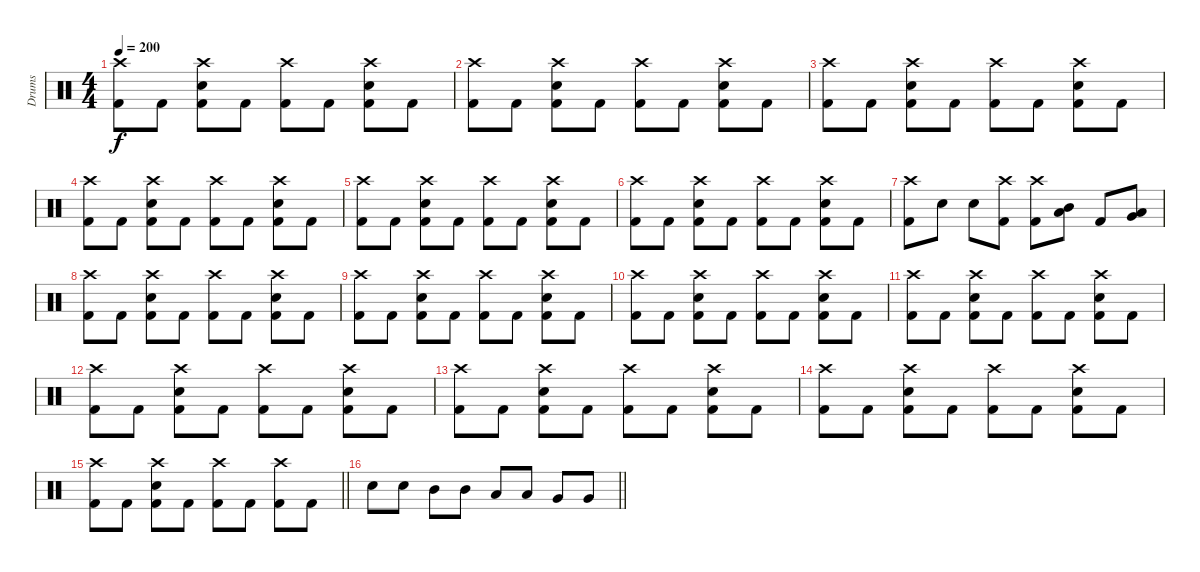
\track ("Drums" "Drums") {instrument percussion}
\staff {score}
\articulation defaults
\ts (4 4)
\tempo 200
\clef neutral
\ks c
("Crash high (hit)" "Kick (hit) 2").8{dy f} "Kick (hit) 2".8 ("Crash high (hit)" "Snare (hit) 2" "Kick (hit) 2").8 "Kick (hit) 2".8 ("Crash high (hit)" "Kick (hit) 2").8 "Kick (hit) 2".8 ("Crash high (hit)" "Snare (hit) 2" "Kick (hit) 2").8 "Kick (hit) 2".8 |
("Crash high (hit)" "Kick (hit) 2").8 "Kick (hit) 2".8 ("Crash high (hit)" "Snare (hit) 2" "Kick (hit) 2").8 "Kick (hit) 2".8 ("Crash high (hit)" "Kick (hit) 2").8 "Kick (hit) 2".8 ("Crash high (hit)" "Snare (hit) 2" "Kick (hit) 2").8 "Kick (hit) 2".8 |
("Crash high (hit)" "Kick (hit) 2").8 "Kick (hit) 2".8 ("Crash high (hit)" "Snare (hit) 2" "Kick (hit) 2").8 "Kick (hit) 2".8 ("Crash high (hit)" "Kick (hit) 2").8 "Kick (hit) 2".8 ("Crash high (hit)" "Snare (hit) 2" "Kick (hit) 2").8 "Kick (hit) 2".8 |
("Crash high (hit)" "Kick (hit) 2").8 "Kick (hit) 2".8 ("Crash high (hit)" "Snare (hit) 2" "Kick (hit) 2").8 "Kick (hit) 2".8 ("Crash high (hit)" "Kick (hit) 2").8 "Kick (hit) 2".8 ("Crash high (hit)" "Snare (hit) 2" "Kick (hit) 2").8 "Kick (hit) 2".8 |
("Crash high (hit)" "Kick (hit) 2").8 "Kick (hit) 2".8 ("Crash high (hit)" "Snare (hit) 2" "Kick (hit) 2").8 "Kick (hit) 2".8 ("Crash high (hit)" "Kick (hit) 2").8 "Kick (hit) 2".8 ("Crash high (hit)" "Snare (hit) 2" "Kick (hit) 2").8 "Kick (hit) 2".8 |
("Crash high (hit)" "Kick (hit) 2").8 "Kick (hit) 2".8 ("Crash high (hit)" "Snare (hit) 2" "Kick (hit) 2").8 "Kick (hit) 2".8 ("Crash high (hit)" "Kick (hit) 2").8 "Kick (hit) 2".8 ("Crash high (hit)" "Snare (hit) 2" "Kick (hit) 2").8 "Kick (hit) 2".8 |
("Crash high (hit)" "Kick (hit) 2").8 "Snare (hit) 2".8 "Snare (hit) 2".8 ("Crash high (hit)" "Kick (hit) 2").8 ("Crash high (hit)" "Kick (hit) 2").8 ("Low Tom (hit)" "Mid Tom (hit)").8 "Kick (hit) 2".8 ("Low Tom (hit)" "Very Low Tom (hit)").8 |
("Crash high (hit)" "Kick (hit) 2").8 "Kick (hit) 2".8 ("Crash high (hit)" "Snare (hit) 2" "Kick (hit) 2").8 "Kick (hit) 2".8 ("Crash high (hit)" "Kick (hit) 2").8 "Kick (hit) 2".8 ("Crash high (hit)" "Snare (hit) 2" "Kick (hit) 2").8 "Kick (hit) 2".8 |
("Crash high (hit)" "Kick (hit) 2").8 "Kick (hit) 2".8 ("Crash high (hit)" "Snare (hit) 2" "Kick (hit) 2").8 "Kick (hit) 2".8 ("Crash high (hit)" "Kick (hit) 2").8 "Kick (hit) 2".8 ("Crash high (hit)" "Snare (hit) 2" "Kick (hit) 2").8 "Kick (hit) 2".8 |
("Crash high (hit)" "Kick (hit) 2").8 "Kick (hit) 2".8 ("Crash high (hit)" "Snare (hit) 2" "Kick (hit) 2").8 "Kick (hit) 2".8 ("Crash high (hit)" "Kick (hit) 2").8 "Kick (hit) 2".8 ("Crash high (hit)" "Snare (hit) 2" "Kick (hit) 2").8 "Kick (hit) 2".8 |
("Crash high (hit)" "Kick (hit) 2").8 "Kick (hit) 2".8 ("Crash high (hit)" "Snare (hit) 2" "Kick (hit) 2").8 "Kick (hit) 2".8 ("Crash high (hit)" "Kick (hit) 2").8 "Kick (hit) 2".8 ("Crash high (hit)" "Snare (hit) 2" "Kick (hit) 2").8 "Kick (hit) 2".8 |
("Crash high (hit)" "Kick (hit) 2").8 "Kick (hit) 2".8 ("Crash high (hit)" "Snare (hit) 2" "Kick (hit) 2").8 "Kick (hit) 2".8 ("Crash high (hit)" "Kick (hit) 2").8 "Kick (hit) 2".8 ("Crash high (hit)" "Snare (hit) 2" "Kick (hit) 2").8 "Kick (hit) 2".8 |
("Crash high (hit)" "Kick (hit) 2").8 "Kick (hit) 2".8 ("Crash high (hit)" "Snare (hit) 2" "Kick (hit) 2").8 "Kick (hit) 2".8 ("Crash high (hit)" "Kick (hit) 2").8 "Kick (hit) 2".8 ("Crash high (hit)" "Snare (hit) 2" "Kick (hit) 2").8 "Kick (hit) 2".8 |
("Crash high (hit)" "Kick (hit) 2").8 "Kick (hit) 2".8 ("Crash high (hit)" "Snare (hit) 2" "Kick (hit) 2").8 "Kick (hit) 2".8 ("Crash high (hit)" "Kick (hit) 2").8 "Kick (hit) 2".8 ("Crash high (hit)" "Snare (hit) 2" "Kick (hit) 2").8 "Kick (hit) 2".8 |
\barLineRight lightlight
("Crash high (hit)" "Kick (hit) 2").8 "Kick (hit) 2".8 ("Crash high (hit)" "Snare (hit) 2" "Kick (hit) 2").8 "Kick (hit) 2".8 ("Crash high (hit)" "Kick (hit) 2").8 "Kick (hit) 2".8 ("Crash high (hit)" "Kick (hit) 2").8 "Kick (hit) 2".8 |
\barLineRight lightlight "Snare (hit) 2".8 "Snare (hit) 2".8 "Mid Tom (hit)".8 "Mid Tom (hit)".8 "Low Tom (hit)".8 "Low Tom (hit)".8 "Very Low Tom (hit)".8 "Very Low Tom (hit)".8
